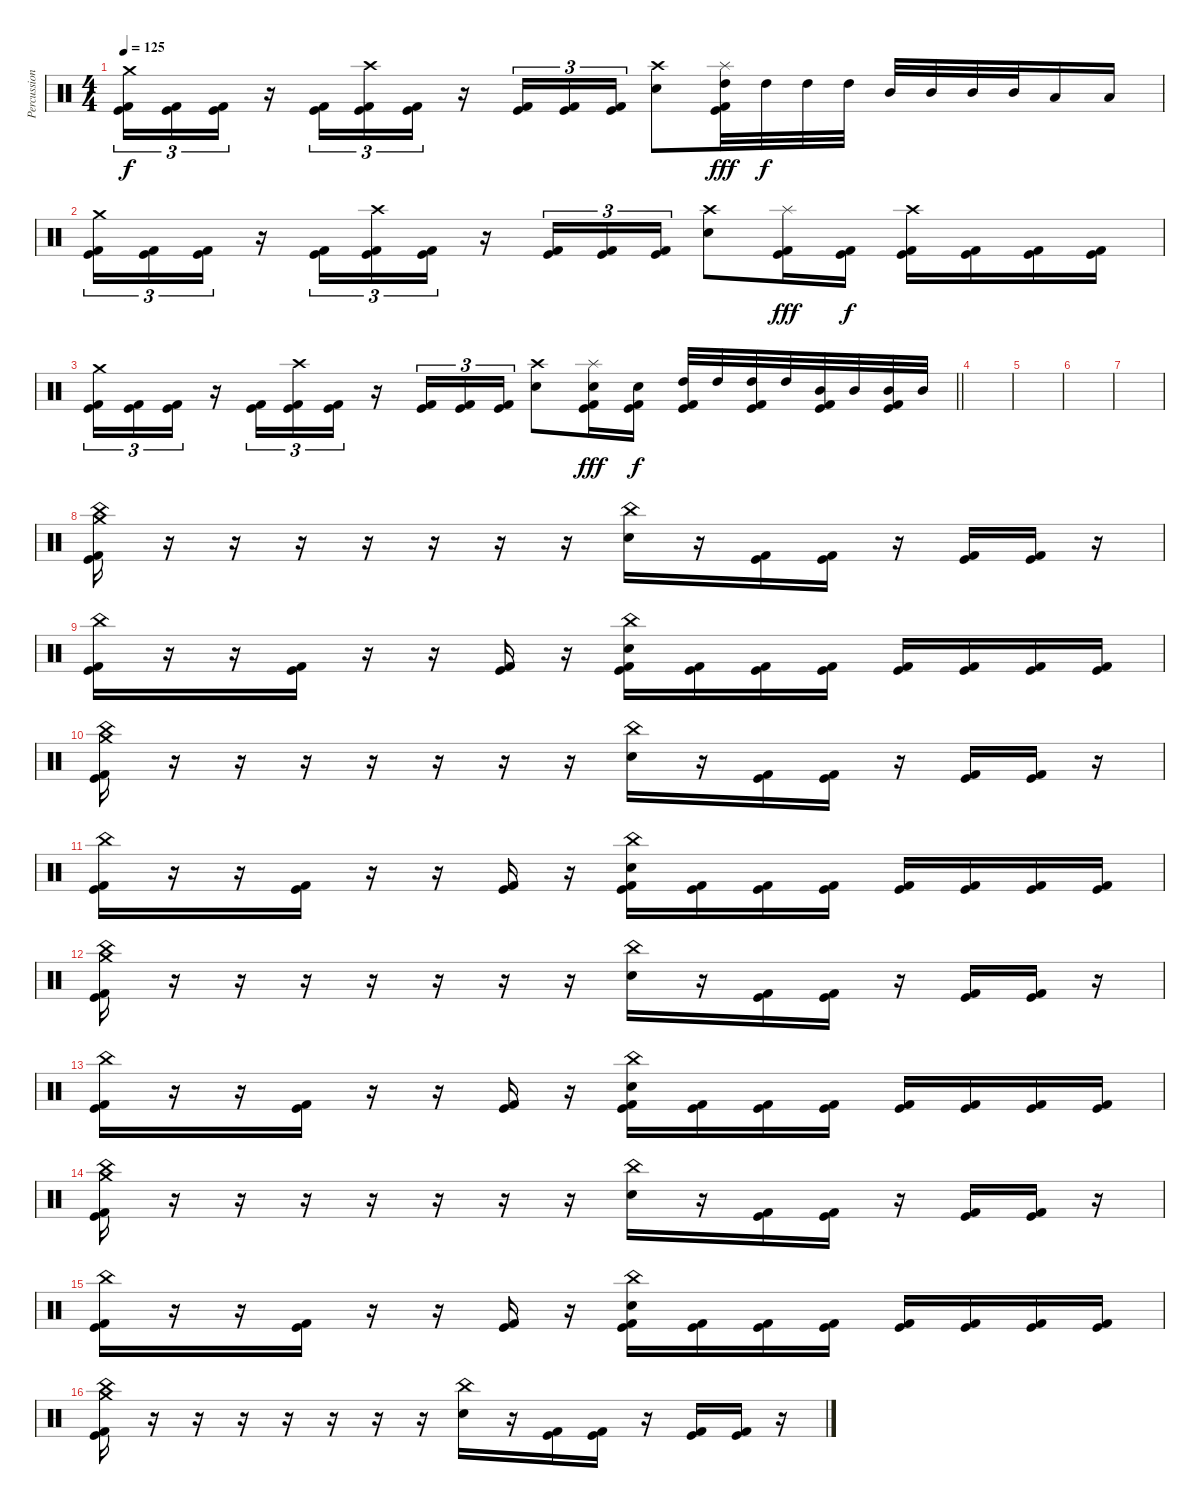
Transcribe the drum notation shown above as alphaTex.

\track ("Percussion" "Percussion") {instrument percussion}
\staff {score}
\articulation defaults
\ts (4 4)
\tempo 125
\clef neutral
\ks c
("Crash medium (hit)" "Kick (hit)" "Kick (hit) 2").16{tu (3 2) dy f} ("Kick (hit)" "Kick (hit) 2").16{tu (3 2)} ("Kick (hit)" "Kick (hit) 2").16{tu (3 2)} r.16 ("Kick (hit)" "Kick (hit) 2").16{tu (3 2)} ("Crash high (hit)" "Kick (hit)" "Kick (hit) 2").16{tu (3 2)} ("Kick (hit)" "Kick (hit) 2").16{tu (3 2)} r.16 ("Kick (hit)" "Kick (hit) 2").16{tu (3 2)} ("Kick (hit)" "Kick (hit) 2").16{tu (3 2)} ("Kick (hit)" "Kick (hit) 2").16{tu (3 2)} ("Crash high (hit)" "Snare (hit) 2").8 ("Splash (hit)" "High Tom (hit)" "Kick (hit)" "Kick (hit) 2").32{dy fff} "High Tom (hit)".32{dy f} "High Tom (hit)".32 "High Tom (hit)".32 "Mid Tom (hit)".32 "Mid Tom (hit)".32 "Mid Tom (hit)".32 "Mid Tom (hit)".32 "Low Tom (hit)".16 "Low Tom (hit)".16 |
("Crash medium (hit)" "Kick (hit)" "Kick (hit) 2").16{tu (3 2)} ("Kick (hit)" "Kick (hit) 2").16{tu (3 2)} ("Kick (hit)" "Kick (hit) 2").16{tu (3 2)} r.16 ("Kick (hit)" "Kick (hit) 2").16{tu (3 2)} ("Crash high (hit)" "Kick (hit)" "Kick (hit) 2").16{tu (3 2)} ("Kick (hit)" "Kick (hit) 2").16{tu (3 2)} r.16 ("Kick (hit)" "Kick (hit) 2").16{tu (3 2)} ("Kick (hit)" "Kick (hit) 2").16{tu (3 2)} ("Kick (hit)" "Kick (hit) 2").16{tu (3 2)} ("Crash high (hit)" "Snare (hit) 2").8 ("Splash (hit)" "Kick (hit)" "Kick (hit) 2").16{dy fff} ("Kick (hit)" "Kick (hit) 2").16{dy f} ("Crash high (hit)" "Kick (hit)" "Kick (hit) 2").16 ("Kick (hit)" "Kick (hit) 2").16 ("Kick (hit)" "Kick (hit) 2").16 ("Kick (hit)" "Kick (hit) 2").16 |
\barLineRight lightlight
("Crash medium (hit)" "Kick (hit)" "Kick (hit) 2").16{tu (3 2)} ("Kick (hit)" "Kick (hit) 2").16{tu (3 2)} ("Kick (hit)" "Kick (hit) 2").16{tu (3 2)} r.16 ("Kick (hit)" "Kick (hit) 2").16{tu (3 2)} ("Crash high (hit)" "Kick (hit)" "Kick (hit) 2").16{tu (3 2)} ("Kick (hit)" "Kick (hit) 2").16{tu (3 2)} r.16 ("Kick (hit)" "Kick (hit) 2").16{tu (3 2)} ("Kick (hit)" "Kick (hit) 2").16{tu (3 2)} ("Kick (hit)" "Kick (hit) 2").16{tu (3 2)} ("Crash high (hit)" "Snare (hit) 2").8 ("Splash (hit)" "Snare (hit) 2" "Kick (hit)" "Kick (hit) 2").16{dy fff} ("Snare (hit) 2" "Kick (hit)" "Kick (hit) 2").16{dy f} ("High Tom (hit)" "Kick (hit)" "Kick (hit) 2").32 "High Tom (hit)".32 ("High Tom (hit)" "Kick (hit)" "Kick (hit) 2").32 "High Tom (hit)".32 ("Mid Tom (hit)" "Kick (hit)" "Kick (hit) 2").32 "Mid Tom (hit)".32 ("Mid Tom (hit)" "Kick (hit)" "Kick (hit) 2").32 "Mid Tom (hit)".32 |
|
|
|
|
("Crash medium (hit)" "China (hit)" "Kick (hit) 2" "Kick (hit)").16 r.16 r.16 r.16 r.16 r.16 r.16 r.16 ("China (hit)" "Snare (hit) 2").16 r.16 ("Kick (hit) 2" "Kick (hit)").16 ("Kick (hit) 2" "Kick (hit)").16 r.16 ("Kick (hit) 2" "Kick (hit)").16 ("Kick (hit) 2" "Kick (hit)").16 r.16 |
("China (hit)" "Kick (hit) 2" "Kick (hit)").16 r.16 r.16 ("Kick (hit) 2" "Kick (hit)").16 r.16 r.16 ("Kick (hit) 2" "Kick (hit)").16 r.16 ("China (hit)" "Snare (hit) 2" "Kick (hit) 2" "Kick (hit)").16 ("Kick (hit) 2" "Kick (hit)").16 ("Kick (hit) 2" "Kick (hit)").16 ("Kick (hit) 2" "Kick (hit)").16 ("Kick (hit) 2" "Kick (hit)").16 ("Kick (hit) 2" "Kick (hit)").16 ("Kick (hit) 2" "Kick (hit)").16 ("Kick (hit) 2" "Kick (hit)").16 |
("Crash medium (hit)" "China (hit)" "Kick (hit) 2" "Kick (hit)").16 r.16 r.16 r.16 r.16 r.16 r.16 r.16 ("China (hit)" "Snare (hit) 2").16 r.16 ("Kick (hit) 2" "Kick (hit)").16 ("Kick (hit) 2" "Kick (hit)").16 r.16 ("Kick (hit) 2" "Kick (hit)").16 ("Kick (hit) 2" "Kick (hit)").16 r.16 |
("China (hit)" "Kick (hit) 2" "Kick (hit)").16 r.16 r.16 ("Kick (hit) 2" "Kick (hit)").16 r.16 r.16 ("Kick (hit) 2" "Kick (hit)").16 r.16 ("China (hit)" "Snare (hit) 2" "Kick (hit) 2" "Kick (hit)").16 ("Kick (hit) 2" "Kick (hit)").16 ("Kick (hit) 2" "Kick (hit)").16 ("Kick (hit) 2" "Kick (hit)").16 ("Kick (hit) 2" "Kick (hit)").16 ("Kick (hit) 2" "Kick (hit)").16 ("Kick (hit) 2" "Kick (hit)").16 ("Kick (hit) 2" "Kick (hit)").16 |
("Crash medium (hit)" "China (hit)" "Kick (hit) 2" "Kick (hit)").16 r.16 r.16 r.16 r.16 r.16 r.16 r.16 ("China (hit)" "Snare (hit) 2").16 r.16 ("Kick (hit) 2" "Kick (hit)").16 ("Kick (hit) 2" "Kick (hit)").16 r.16 ("Kick (hit) 2" "Kick (hit)").16 ("Kick (hit) 2" "Kick (hit)").16 r.16 |
("China (hit)" "Kick (hit) 2" "Kick (hit)").16 r.16 r.16 ("Kick (hit) 2" "Kick (hit)").16 r.16 r.16 ("Kick (hit) 2" "Kick (hit)").16 r.16 ("China (hit)" "Snare (hit) 2" "Kick (hit) 2" "Kick (hit)").16 ("Kick (hit) 2" "Kick (hit)").16 ("Kick (hit) 2" "Kick (hit)").16 ("Kick (hit) 2" "Kick (hit)").16 ("Kick (hit) 2" "Kick (hit)").16 ("Kick (hit) 2" "Kick (hit)").16 ("Kick (hit) 2" "Kick (hit)").16 ("Kick (hit) 2" "Kick (hit)").16 |
("Crash medium (hit)" "China (hit)" "Kick (hit) 2" "Kick (hit)").16 r.16 r.16 r.16 r.16 r.16 r.16 r.16 ("China (hit)" "Snare (hit) 2").16 r.16 ("Kick (hit) 2" "Kick (hit)").16 ("Kick (hit) 2" "Kick (hit)").16 r.16 ("Kick (hit) 2" "Kick (hit)").16 ("Kick (hit) 2" "Kick (hit)").16 r.16 |
("China (hit)" "Kick (hit) 2" "Kick (hit)").16 r.16 r.16 ("Kick (hit) 2" "Kick (hit)").16 r.16 r.16 ("Kick (hit) 2" "Kick (hit)").16 r.16 ("China (hit)" "Snare (hit) 2" "Kick (hit) 2" "Kick (hit)").16 ("Kick (hit) 2" "Kick (hit)").16 ("Kick (hit) 2" "Kick (hit)").16 ("Kick (hit) 2" "Kick (hit)").16 ("Kick (hit) 2" "Kick (hit)").16 ("Kick (hit) 2" "Kick (hit)").16 ("Kick (hit) 2" "Kick (hit)").16 ("Kick (hit) 2" "Kick (hit)").16 |
("Crash medium (hit)" "China (hit)" "Kick (hit) 2" "Kick (hit)").16 r.16 r.16 r.16 r.16 r.16 r.16 r.16 ("China (hit)" "Snare (hit) 2").16 r.16 ("Kick (hit) 2" "Kick (hit)").16 ("Kick (hit) 2" "Kick (hit)").16 r.16 ("Kick (hit) 2" "Kick (hit)").16 ("Kick (hit) 2" "Kick (hit)").16 r.16
